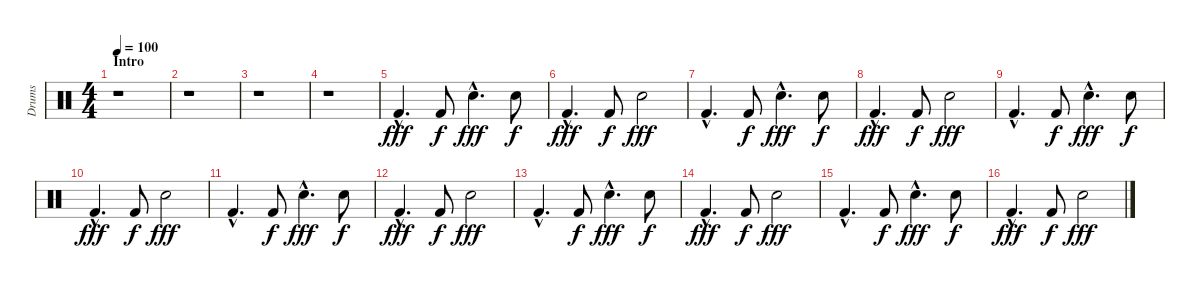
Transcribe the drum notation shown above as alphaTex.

\track ("Drums" "Drums") {instrument percussion}
\staff {score}
\articulation defaults
\ts (4 4)
\section ("" "Intro")
\tempo 100
\clef neutral
\ks c
r.1{dy fff} |
r.1 |
r.1 |
r.1 |
"Kick (hit) 2"{hac}.4{d} "Kick (hit) 2".8{dy f} "Electric Snare (hit)"{hac}.4{d dy fff} "Electric Snare (hit)".8{dy f} |
"Kick (hit) 2"{hac}.4{d dy fff} "Kick (hit) 2".8{dy f} "Electric Snare (hit)".2{dy fff} |
"Kick (hit) 2"{hac}.4{d} "Kick (hit) 2".8{dy f} "Electric Snare (hit)"{hac}.4{d dy fff} "Electric Snare (hit)".8{dy f} |
"Kick (hit) 2"{hac}.4{d dy fff} "Kick (hit) 2".8{dy f} "Electric Snare (hit)".2{dy fff} |
"Kick (hit) 2"{hac}.4{d} "Kick (hit) 2".8{dy f} "Electric Snare (hit)"{hac}.4{d dy fff} "Electric Snare (hit)".8{dy f} |
"Kick (hit) 2"{hac}.4{d dy fff} "Kick (hit) 2".8{dy f} "Electric Snare (hit)".2{dy fff} |
"Kick (hit) 2"{hac}.4{d} "Kick (hit) 2".8{dy f} "Electric Snare (hit)"{hac}.4{d dy fff} "Electric Snare (hit)".8{dy f} |
"Kick (hit) 2"{hac}.4{d dy fff} "Kick (hit) 2".8{dy f} "Electric Snare (hit)".2{dy fff} |
"Kick (hit) 2"{hac}.4{d} "Kick (hit) 2".8{dy f} "Electric Snare (hit)"{hac}.4{d dy fff} "Electric Snare (hit)".8{dy f} |
"Kick (hit) 2"{hac}.4{d dy fff} "Kick (hit) 2".8{dy f} "Electric Snare (hit)".2{dy fff} |
"Kick (hit) 2"{hac}.4{d} "Kick (hit) 2".8{dy f} "Electric Snare (hit)"{hac}.4{d dy fff} "Electric Snare (hit)".8{dy f} |
"Kick (hit) 2"{hac}.4{d dy fff} "Kick (hit) 2".8{dy f} "Electric Snare (hit)".2{dy fff}
